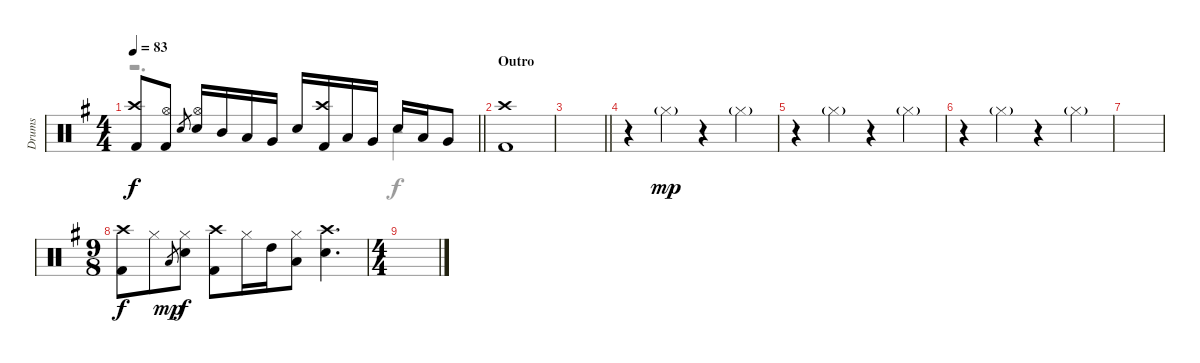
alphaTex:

\track ("Drums" "Drums") {instrument percussion}
\staff {score}
\articulation defaults
\voice
\ts (4 4)
\tempo 83
\clef neutral
\barLineRight lightlight
\ks g
("Crash high (hit)" "Kick (hit) 2").8{dy f} ("Hi-Hat (open)" "Kick (hit) 2").8 "Electric Snare (hit)".8{gr} ("Hi-Hat (open)" "Electric Snare (hit)").16 "Mid Tom (hit)".16 "Low Tom (hit)".16 "Very Low Tom (hit)".16 "Electric Snare (hit)".16 ("Crash high (hit)" "Kick (hit) 2").16 "Low Tom (hit)".16 "Very Low Tom (hit)".16 "Electric Snare (hit)".16 "Low Tom (hit)".16 "Very Low Tom (hit)".8 |
\section ("" "Outro")
("Crash high (hit)" "Kick (hit) 2").1 |
\barLineRight lightlight
|
\section ("" "")
r.4 "Hi-Hat (closed)"{g}.4{dy mp} r.4 "Hi-Hat (closed)"{g}.4 |
r.4 "Hi-Hat (closed)"{g}.4 r.4 "Hi-Hat (closed)"{g}.4 |
r.4 "Hi-Hat (closed)"{g}.4 r.4 "Hi-Hat (closed)"{g}.4 |
|
\ts (9 8)
("Crash high (hit)" "Kick (hit) 2").8{dy f} "Hi-Hat (closed)".8 "Low Tom (hit)".8{gr dy mp} ("Hi-Hat (closed)" "Electric Snare (hit)").8{dy f} ("Crash high (hit)" "Kick (hit) 2").8 "Hi-Hat (closed)".16 "High Tom (hit)".16 ("Hi-Hat (closed)" "Low Tom (hit)").8 ("Crash high (hit)" "Electric Snare (hit)").4{d} |
\ts (4 4)
|
\voice
\clef neutral
\ottava regular
\simile none
\barLineRight lightlight
\ks g
r.2{d dy f} "Tambourine (hit)".4 |
|
\barLineRight lightlight
|
|
|
|
|
|
|
